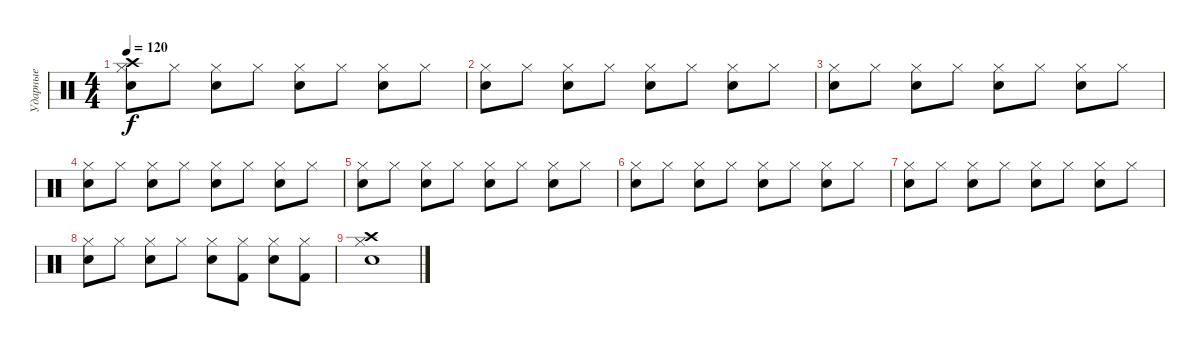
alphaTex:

\track ("Ударные" "Ударные") {instrument percussion}
\staff {score}
\articulation defaults
\ts (4 4)
\tempo 120
\clef neutral
\ks c
("Hi-Hat (closed)" "Crash high (hit)" "Snare (hit) 2").8{dy f} "Hi-Hat (closed)".8 ("Hi-Hat (closed)" "Snare (hit) 2").8 "Hi-Hat (closed)".8 ("Hi-Hat (closed)" "Snare (hit) 2").8 "Hi-Hat (closed)".8 ("Hi-Hat (closed)" "Snare (hit) 2").8 "Hi-Hat (closed)".8 |
("Hi-Hat (closed)" "Snare (hit) 2").8 "Hi-Hat (closed)".8 ("Hi-Hat (closed)" "Snare (hit) 2").8 "Hi-Hat (closed)".8 ("Hi-Hat (closed)" "Snare (hit) 2").8 "Hi-Hat (closed)".8 ("Hi-Hat (closed)" "Snare (hit) 2").8 "Hi-Hat (closed)".8 |
("Hi-Hat (closed)" "Snare (hit) 2").8 "Hi-Hat (closed)".8 ("Hi-Hat (closed)" "Snare (hit) 2").8 "Hi-Hat (closed)".8 ("Hi-Hat (closed)" "Snare (hit) 2").8 "Hi-Hat (closed)".8 ("Hi-Hat (closed)" "Snare (hit) 2").8 "Hi-Hat (closed)".8 |
("Hi-Hat (closed)" "Snare (hit) 2").8 "Hi-Hat (closed)".8 ("Hi-Hat (closed)" "Snare (hit) 2").8 "Hi-Hat (closed)".8 ("Hi-Hat (closed)" "Snare (hit) 2").8 "Hi-Hat (closed)".8 ("Hi-Hat (closed)" "Snare (hit) 2").8 "Hi-Hat (closed)".8 |
("Hi-Hat (closed)" "Snare (hit) 2").8 "Hi-Hat (closed)".8 ("Hi-Hat (closed)" "Snare (hit) 2").8 "Hi-Hat (closed)".8 ("Hi-Hat (closed)" "Snare (hit) 2").8 "Hi-Hat (closed)".8 ("Hi-Hat (closed)" "Snare (hit) 2").8 "Hi-Hat (closed)".8 |
("Hi-Hat (closed)" "Snare (hit) 2").8 "Hi-Hat (closed)".8 ("Hi-Hat (closed)" "Snare (hit) 2").8 "Hi-Hat (closed)".8 ("Hi-Hat (closed)" "Snare (hit) 2").8 "Hi-Hat (closed)".8 ("Hi-Hat (closed)" "Snare (hit) 2").8 "Hi-Hat (closed)".8 |
("Hi-Hat (closed)" "Snare (hit) 2").8 "Hi-Hat (closed)".8 ("Hi-Hat (closed)" "Snare (hit) 2").8 "Hi-Hat (closed)".8 ("Hi-Hat (closed)" "Snare (hit) 2").8 "Hi-Hat (closed)".8 ("Hi-Hat (closed)" "Snare (hit) 2").8 "Hi-Hat (closed)".8 |
("Hi-Hat (closed)" "Snare (hit) 2").8 "Hi-Hat (closed)".8 ("Hi-Hat (closed)" "Snare (hit) 2").8 "Hi-Hat (closed)".8 ("Hi-Hat (closed)" "Snare (hit) 2").8 ("Hi-Hat (closed)" "Kick (hit) 2").8 ("Hi-Hat (closed)" "Snare (hit) 2").8 ("Hi-Hat (closed)" "Kick (hit) 2").8 |
("Hi-Hat (closed)" "Crash high (hit)" "Snare (hit) 2").1
